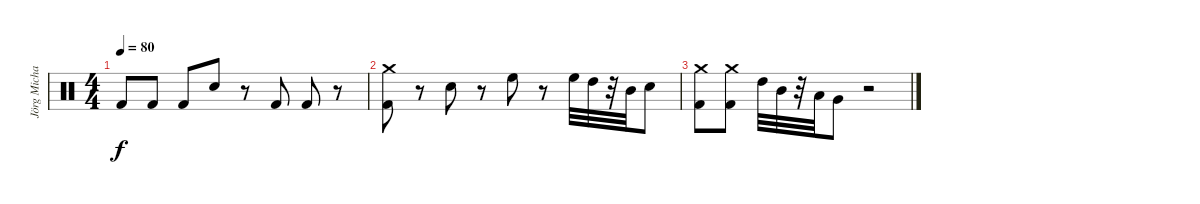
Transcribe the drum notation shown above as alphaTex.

\track ("Jörg Michael" "Jörg Micha") {instrument percussion}
\staff {score}
\articulation defaults
\ts (4 4)
\tempo 80
\clef neutral
\ks c "Kick (hit) 2".8{dy f} "Kick (hit) 2".8 "Kick (hit) 2".8 "Snare (hit) 2".8
r.8 "Kick (hit) 2".8 "Kick (hit) 2".8 r.8 |
("Kick (hit) 2" "Crash medium (hit)").8 r.8 "Snare (hit) 2".8 r.8 "High Floor Tom (hit)".8 r.8 "High Floor Tom (hit)".32 "High Tom (hit)".32 r.32 "Mid Tom (hit)".32 "Snare (hit) 2".8 |
("Kick (hit) 2" "Crash medium (hit)").8 ("Kick (hit) 2" "Crash medium (hit)").8 "High Tom (hit)".32 "Mid Tom (hit)".32 r.32 "Low Tom (hit)".32 "Very Low Tom (hit)".8 r.2
